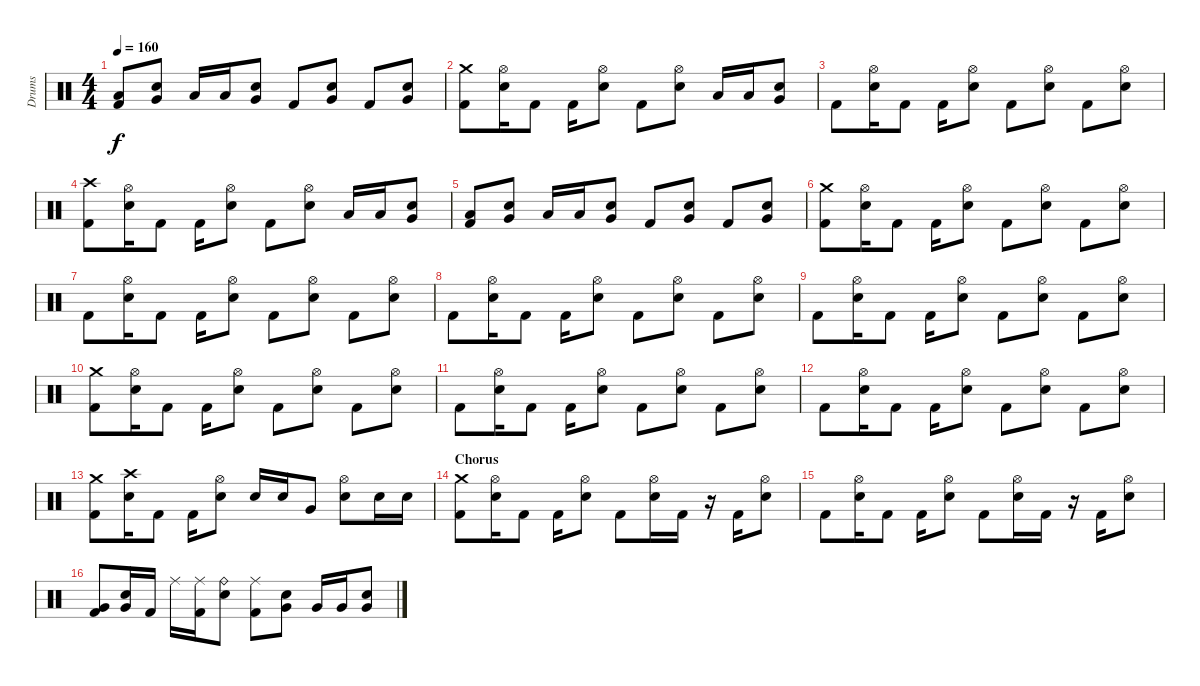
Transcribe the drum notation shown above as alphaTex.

\track ("Drums" "Drums") {instrument percussion}
\staff {score}
\articulation defaults
\ts (4 4)
\tempo 160
\clef neutral
\ks c
("Kick (hit) 2" "Low Floor Tom (hit)").8{dy f} ("Electric Snare (hit)" "Very Low Tom (hit)").8 "Low Tom (hit)".16 "Low Tom (hit)".16 ("Electric Snare (hit)" "Very Low Tom (hit)").8 "Kick (hit) 2".8 ("Electric Snare (hit)" "Very Low Tom (hit)").8 "Kick (hit) 2".8 ("Electric Snare (hit)" "Very Low Tom (hit)").8 |
("Kick (hit) 2" "Crash medium (hit)").8 ("Electric Snare (hit)" "Hi-Hat (open)").16 "Kick (hit) 2".8 "Kick (hit) 2".16 ("Electric Snare (hit)" "Hi-Hat (open)").8 "Kick (hit) 2".8 ("Electric Snare (hit)" "Hi-Hat (open)").8 "Low Tom (hit)".16 "Low Tom (hit)".16 ("Electric Snare (hit)" "Very Low Tom (hit)").8 |
"Kick (hit) 2".8 ("Electric Snare (hit)" "Hi-Hat (open)").16 "Kick (hit) 2".8 "Kick (hit) 2".16 ("Electric Snare (hit)" "Hi-Hat (open)").8 "Kick (hit) 2".8 ("Electric Snare (hit)" "Hi-Hat (open)").8 "Kick (hit) 2".8 ("Electric Snare (hit)" "Hi-Hat (open)").8 |
("Kick (hit) 2" "Crash high (hit)").8 ("Electric Snare (hit)" "Hi-Hat (open)").16 "Kick (hit) 2".8 "Kick (hit) 2".16 ("Electric Snare (hit)" "Hi-Hat (open)").8 "Kick (hit) 2".8 ("Electric Snare (hit)" "Hi-Hat (open)").8 "Low Tom (hit)".16 "Low Tom (hit)".16 ("Electric Snare (hit)" "Very Low Tom (hit)").8 |
("Kick (hit) 2" "Low Floor Tom (hit)").8 ("Electric Snare (hit)" "Very Low Tom (hit)").8 "Low Tom (hit)".16 "Low Tom (hit)".16 ("Electric Snare (hit)" "Very Low Tom (hit)").8 "Kick (hit) 2".8 ("Electric Snare (hit)" "Very Low Tom (hit)").8 "Kick (hit) 2".8 ("Electric Snare (hit)" "Very Low Tom (hit)").8 |
("Kick (hit) 2" "Crash medium (hit)").8 ("Electric Snare (hit)" "Hi-Hat (open)").16 "Kick (hit) 2".8 "Kick (hit) 2".16 ("Electric Snare (hit)" "Hi-Hat (open)").8 "Kick (hit) 2".8 ("Electric Snare (hit)" "Hi-Hat (open)").8 "Kick (hit) 2".8 ("Electric Snare (hit)" "Hi-Hat (open)").8 |
"Kick (hit) 2".8 ("Electric Snare (hit)" "Hi-Hat (open)").16 "Kick (hit) 2".8 "Kick (hit) 2".16 ("Electric Snare (hit)" "Hi-Hat (open)").8 "Kick (hit) 2".8 ("Electric Snare (hit)" "Hi-Hat (open)").8 "Kick (hit) 2".8 ("Electric Snare (hit)" "Hi-Hat (open)").8 |
"Kick (hit) 2".8 ("Electric Snare (hit)" "Hi-Hat (open)").16 "Kick (hit) 2".8 "Kick (hit) 2".16 ("Electric Snare (hit)" "Hi-Hat (open)").8 "Kick (hit) 2".8 ("Electric Snare (hit)" "Hi-Hat (open)").8 "Kick (hit) 2".8 ("Electric Snare (hit)" "Hi-Hat (open)").8 |
"Kick (hit) 2".8 ("Electric Snare (hit)" "Hi-Hat (open)").16 "Kick (hit) 2".8 "Kick (hit) 2".16 ("Electric Snare (hit)" "Hi-Hat (open)").8 "Kick (hit) 2".8 ("Electric Snare (hit)" "Hi-Hat (open)").8 "Kick (hit) 2".8 ("Electric Snare (hit)" "Hi-Hat (open)").8 |
("Kick (hit) 2" "Crash medium (hit)").8 ("Electric Snare (hit)" "Hi-Hat (open)").16 "Kick (hit) 2".8 "Kick (hit) 2".16 ("Electric Snare (hit)" "Hi-Hat (open)").8 "Kick (hit) 2".8 ("Electric Snare (hit)" "Hi-Hat (open)").8 "Kick (hit) 2".8 ("Electric Snare (hit)" "Hi-Hat (open)").8 |
"Kick (hit) 2".8 ("Electric Snare (hit)" "Hi-Hat (open)").16 "Kick (hit) 2".8 "Kick (hit) 2".16 ("Electric Snare (hit)" "Hi-Hat (open)").8 "Kick (hit) 2".8 ("Electric Snare (hit)" "Hi-Hat (open)").8 "Kick (hit) 2".8 ("Electric Snare (hit)" "Hi-Hat (open)").8 |
"Kick (hit) 2".8 ("Electric Snare (hit)" "Hi-Hat (open)").16 "Kick (hit) 2".8 "Kick (hit) 2".16 ("Electric Snare (hit)" "Hi-Hat (open)").8 "Kick (hit) 2".8 ("Electric Snare (hit)" "Hi-Hat (open)").8 "Kick (hit) 2".8 ("Electric Snare (hit)" "Hi-Hat (open)").8 |
("Kick (hit) 2" "Crash medium (hit)").8 ("Electric Snare (hit)" "Crash high (hit)").16 "Kick (hit) 2".8 "Kick (hit) 2".16 ("Electric Snare (hit)" "Hi-Hat (open)").8 "Electric Snare (hit)".16 "Electric Snare (hit)".16 "Very Low Tom (hit)".8 ("Electric Snare (hit)" "Hi-Hat (open)").8 "Electric Snare (hit)".16 "Electric Snare (hit)".16 |
\section ("" "Chorus")
("Kick (hit) 2" "Crash medium (hit)").8 ("Electric Snare (hit)" "Hi-Hat (open)").16 "Kick (hit) 2".8 "Kick (hit) 2".16 ("Electric Snare (hit)" "Hi-Hat (open)").8 "Kick (hit) 2".8 ("Electric Snare (hit)" "Hi-Hat (open)").16 "Kick (hit) 2".16 r.16 "Kick (hit) 2".16 ("Electric Snare (hit)" "Hi-Hat (open)").8 |
"Kick (hit) 2".8 ("Electric Snare (hit)" "Hi-Hat (open)").16 "Kick (hit) 2".8 "Kick (hit) 2".16 ("Electric Snare (hit)" "Hi-Hat (open)").8 "Kick (hit) 2".8 ("Electric Snare (hit)" "Hi-Hat (open)").16 "Kick (hit) 2".16 r.16 "Kick (hit) 2".16 ("Electric Snare (hit)" "Hi-Hat (open)").8 |
("Kick (hit) 2" "Very Low Tom (hit)").8 ("Electric Snare (hit)" "Very Low Tom (hit)").16 "Kick (hit) 2".16 "Ride (middle)".16 ("Kick (hit) 2" "Ride (middle)").16 ("Electric Snare (hit)" "Ride (bell)").8 ("Kick (hit) 2" "Ride (middle)").8 ("Electric Snare (hit)" "Very Low Tom (hit)").8 "Very Low Tom (hit)".16 "Very Low Tom (hit)".16 ("Electric Snare (hit)" "Very Low Tom (hit)").8
